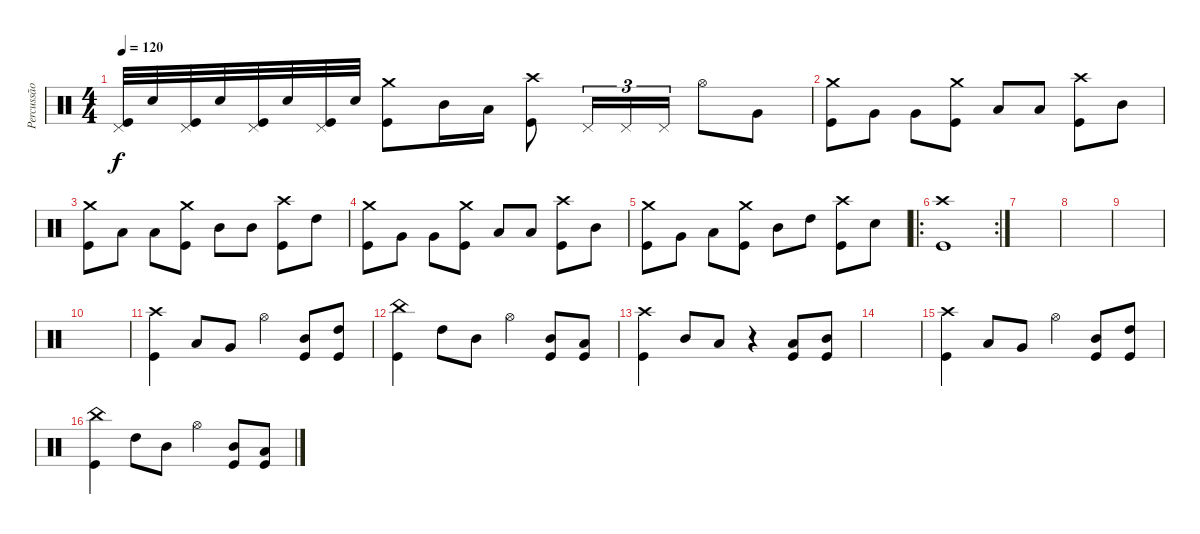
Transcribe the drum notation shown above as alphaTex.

\track ("Percussão" "Percussão") {instrument percussion}
\staff {score}
\articulation defaults
\ts (4 4)
\tempo 120
\clef neutral
\ks c
("Kick (hit)" "Pedal Hi-Hat (hit)").32{dy f} "Snare (hit) 2".32 ("Kick (hit)" "Pedal Hi-Hat (hit)").32 "Snare (hit) 2".32 ("Kick (hit)" "Pedal Hi-Hat (hit)").32 "Snare (hit) 2".32 ("Kick (hit)" "Pedal Hi-Hat (hit)").32 "Snare (hit) 2".32 ("Kick (hit)" "Crash medium (hit)").8 "Mid Tom (hit)".16 "Low Tom (hit)".16 ("Kick (hit)" "Crash high (hit)").8 "Pedal Hi-Hat (hit)".16{tu (3 2)} "Pedal Hi-Hat (hit)".16{tu (3 2)} "Pedal Hi-Hat (hit)".16{tu (3 2)} "Hi-Hat (open)".8 "Very Low Tom (hit)".8 |
("Kick (hit)" "Crash medium (hit)").8 "Very Low Tom (hit)".8 "Very Low Tom (hit)".8 ("Kick (hit)" "Crash medium (hit)").8 "Low Tom (hit)".8 "Low Tom (hit)".8 ("Kick (hit)" "Crash high (hit)").8 "Mid Tom (hit)".8 |
("Kick (hit)" "Crash medium (hit)").8 "Low Tom (hit)".8 "Low Tom (hit)".8 ("Kick (hit)" "Crash medium (hit)").8 "Mid Tom (hit)".8 "Mid Tom (hit)".8 ("Kick (hit)" "Crash high (hit)").8 "High Tom (hit)".8 |
("Kick (hit)" "Crash medium (hit)").8 "Very Low Tom (hit)".8 "Very Low Tom (hit)".8 ("Kick (hit)" "Crash medium (hit)").8 "Low Tom (hit)".8 "Low Tom (hit)".8 ("Kick (hit)" "Crash high (hit)").8 "Mid Tom (hit)".8 |
("Kick (hit)" "Crash medium (hit)").8 "Very Low Tom (hit)".8 "Low Tom (hit)".8 ("Kick (hit)" "Crash medium (hit)").8 "Mid Tom (hit)".8 "High Tom (hit)".8 ("Kick (hit)" "Crash high (hit)").8 "Snare (hit) 2".8 |
\ro
\rc 2
("Kick (hit)" "Crash high (hit)").1 |
|
|
|
|
("Kick (hit)" "Crash high (hit)").4 "Low Tom (hit)".8 "Very Low Tom (hit)".8 "Hi-Hat (open)".4 ("Kick (hit)" "Mid Tom (hit)").8 ("Kick (hit)" "High Tom (hit)").8 |
("Kick (hit)" "China (hit)").4 "High Tom (hit)".8 "Mid Tom (hit)".8 "Hi-Hat (open)".4 ("Kick (hit)" "Mid Tom (hit)").8 ("Kick (hit)" "Low Tom (hit)").8 |
("Kick (hit)" "Crash high (hit)").4 "Mid Tom (hit)".8 "Low Tom (hit)".8 r.4 ("Kick (hit)" "Low Tom (hit)").8 ("Kick (hit)" "Mid Tom (hit)").8 |
|
("Kick (hit)" "Crash high (hit)").4 "Low Tom (hit)".8 "Very Low Tom (hit)".8 "Hi-Hat (open)".4 ("Kick (hit)" "Mid Tom (hit)").8 ("Kick (hit)" "High Tom (hit)").8 |
("Kick (hit)" "China (hit)").4 "High Tom (hit)".8 "Mid Tom (hit)".8 "Hi-Hat (open)".4 ("Kick (hit)" "Mid Tom (hit)").8 ("Kick (hit)" "Low Tom (hit)").8
